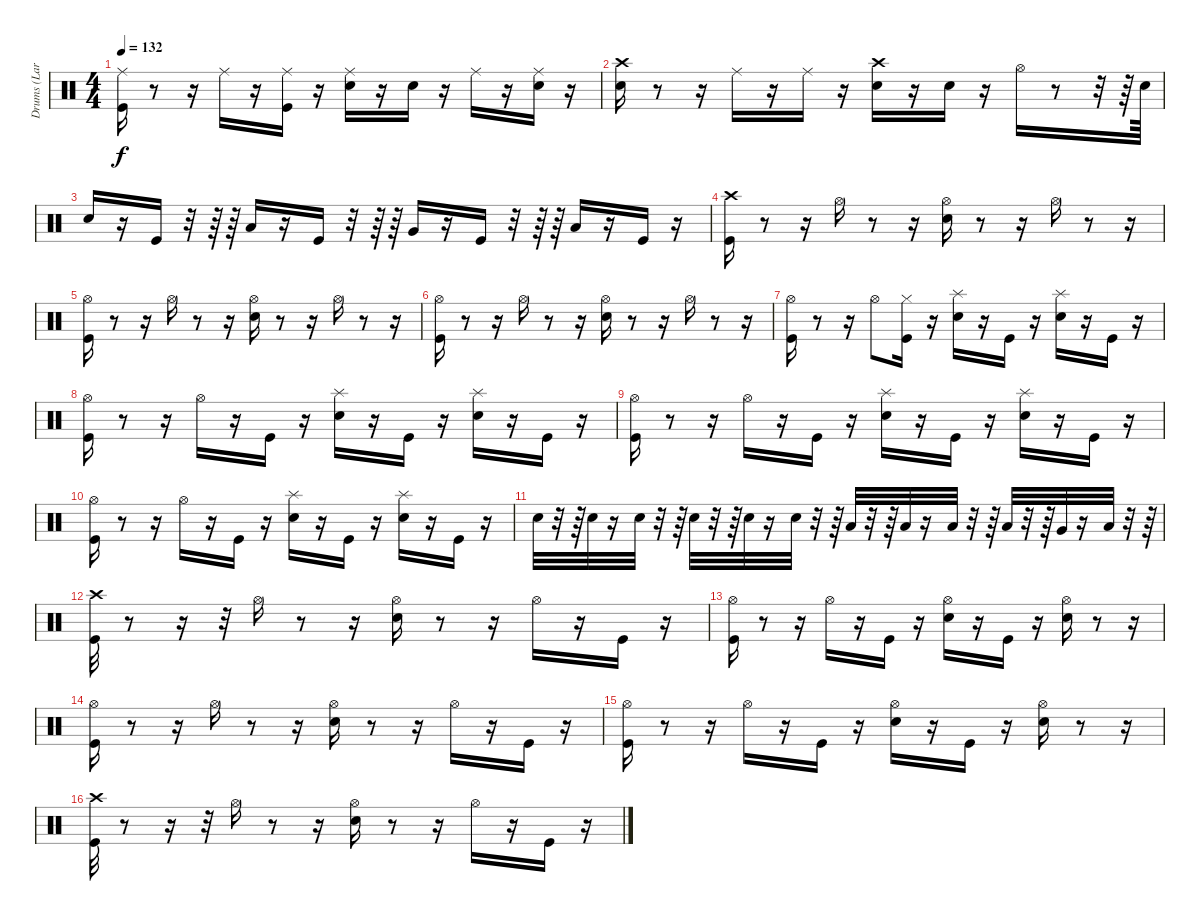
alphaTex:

\track ("Drums (Lars)" "Drums (Lar") {instrument percussion}
\staff {score}
\articulation defaults
\ts (4 4)
\tempo 132
\clef neutral
\ks c
("Ride (middle)" "Kick (hit)").16{dy f} r.8 r.16 "Ride (middle)".16 r.16 ("Ride (middle)" "Kick (hit)").16 r.16 ("Ride (middle)" "Snare (hit) 2").16 r.16 "Snare (hit) 2".16 r.16 "Ride (middle)".16 r.16 ("Ride (middle)" "Snare (hit) 2").16 r.16 |
("Snare (hit) 2" "Crash high (hit)").16 r.8 r.16 "Ride (middle)".16 r.16 "Ride (middle)".16 r.16 ("Snare (hit) 2" "Crash high (hit)").16 r.16 "Snare (hit) 2".16 r.16 "Hi-Hat (open)".16 r.8 r.32 r.64 "Snare (hit) 2".64 |
"Snare (hit) 2".16 r.16 "Kick (hit)".16 r.32 r.64 r.64 "Low Tom (hit)".16 r.16 "Kick (hit)".16 r.32 r.64 r.64 "Very Low Tom (hit)".16 r.16 "Kick (hit)".16 r.32 r.64 r.64 "Low Floor Tom (hit)".16 r.16 "Kick (hit)".16 r.16 |
("Crash high (hit)" "Kick (hit)").16 r.8 r.16 "Hi-Hat (open)".16 r.8 r.16 ("Hi-Hat (open)" "Snare (hit) 2").16 r.8 r.16 "Hi-Hat (open)".16 r.8 r.16 |
("Hi-Hat (open)" "Kick (hit)").16 r.8 r.16 "Hi-Hat (open)".16 r.8 r.16 ("Hi-Hat (open)" "Snare (hit) 2").16 r.8 r.16 "Hi-Hat (open)".16 r.8 r.16 |
("Kick (hit)" "Hi-Hat (open)").16 r.8 r.16 "Hi-Hat (open)".16 r.8 r.16 ("Hi-Hat (open)" "Snare (hit) 2").16 r.8 r.16 "Hi-Hat (open)".16 r.8 r.16 |
("Hi-Hat (open)" "Kick (hit)").16 r.8 r.16 "Hi-Hat (open)".8 ("Hi-Hat (closed)" "Kick (hit)").16 r.16 ("Snare (hit) 2" "Splash (hit)").16 r.16 "Kick (hit)".16 r.16 ("Snare (hit) 2" "Splash (hit)").16 r.16 "Kick (hit)".16 r.16 |
("Kick (hit)" "Hi-Hat (open)").16 r.8 r.16 "Hi-Hat (open)".16 r.16 "Kick (hit)".16 r.16 ("Snare (hit) 2" "Splash (hit)").16 r.16 "Kick (hit)".16 r.16 ("Snare (hit) 2" "Splash (hit)").16 r.16 "Kick (hit)".16 r.16 |
("Hi-Hat (open)" "Kick (hit)").16 r.8 r.16 "Hi-Hat (open)".16 r.16 "Kick (hit)".16 r.16 ("Snare (hit) 2" "Splash (hit)").16 r.16 "Kick (hit)".16 r.16 ("Snare (hit) 2" "Splash (hit)").16 r.16 "Kick (hit)".16 r.16 |
("Kick (hit)" "Hi-Hat (open)").16 r.8 r.16 "Hi-Hat (open)".16 r.16 "Kick (hit)".16 r.16 ("Snare (hit) 2" "Splash (hit)").16 r.16 "Kick (hit)".16 r.16 ("Snare (hit) 2" "Splash (hit)").16 r.16 "Kick (hit)".16 r.16 |
"Snare (hit) 2".32 r.32 r.64 "Snare (hit) 2".32 r.16 "Snare (hit) 2".32 r.32 r.64 "Snare (hit) 2".32 r.32 r.64 "Snare (hit) 2".32 r.16 "Snare (hit) 2".32 r.32 r.64 "Low Tom (hit)".32 r.32 r.64 "Low Tom (hit)".32 r.16 "Low Tom (hit)".32 r.32 r.64 "Low Tom (hit)".32 r.32 r.64 "Very Low Tom (hit)".32 r.16 "Low Floor Tom (hit)".32 r.32 r.64 |
("Kick (hit)" "Crash high (hit)").32 r.8 r.16 r.32 "Hi-Hat (open)".16 r.8 r.16 ("Hi-Hat (open)" "Snare (hit) 2").16 r.8 r.16 "Hi-Hat (open)".16 r.16 "Kick (hit)".16 r.16 |
("Kick (hit)" "Hi-Hat (open)").16 r.8 r.16 "Hi-Hat (open)".16 r.16 "Kick (hit)".16 r.16 ("Hi-Hat (open)" "Snare (hit) 2").16 r.16 "Kick (hit)".16 r.16 ("Hi-Hat (open)" "Snare (hit) 2").16 r.8 r.16 |
("Hi-Hat (open)" "Kick (hit)").16 r.8 r.16 "Hi-Hat (open)".16 r.8 r.16 ("Hi-Hat (open)" "Snare (hit) 2").16 r.8 r.16 "Hi-Hat (open)".16 r.16 "Kick (hit)".16 r.16 |
("Kick (hit)" "Hi-Hat (open)").16 r.8 r.16 "Hi-Hat (open)".16 r.16 "Kick (hit)".16 r.16 ("Hi-Hat (open)" "Snare (hit) 2").16 r.16 "Kick (hit)".16 r.16 ("Hi-Hat (open)" "Snare (hit) 2").16 r.8 r.16 |
("Crash high (hit)" "Kick (hit)").32 r.8 r.16 r.32 "Hi-Hat (open)".16 r.8 r.16 ("Hi-Hat (open)" "Snare (hit) 2").16 r.8 r.16 "Hi-Hat (open)".16 r.16 "Kick (hit)".16 r.16
